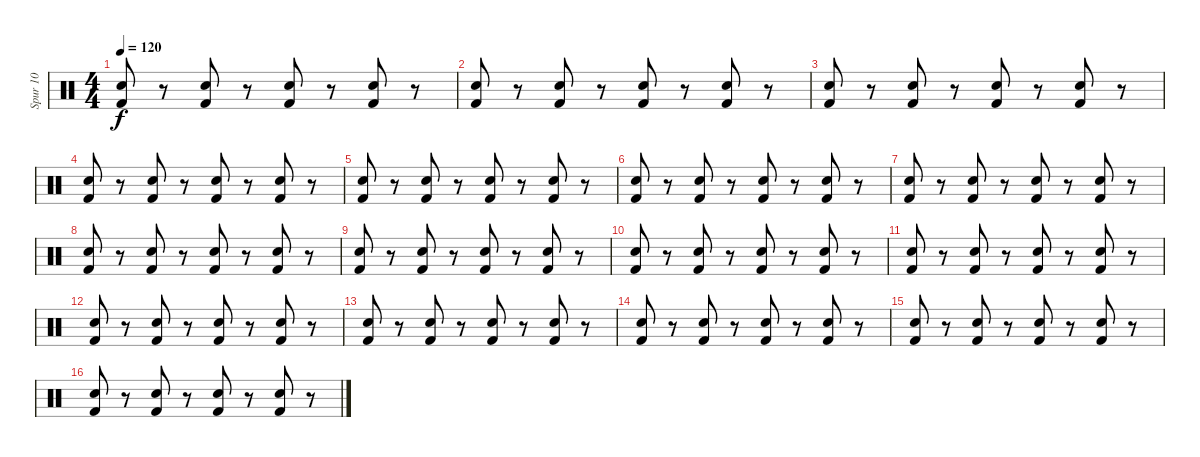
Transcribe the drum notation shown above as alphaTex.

\track ("Spur 10" "Spur 10") {instrument percussion}
\staff {score}
\articulation defaults
\ts (4 4)
\tempo 120
\clef neutral
\ks c
("Hand Clap (hit)" "Kick (hit) 2").8{dy f} r.8 ("Hand Clap (hit)" "Kick (hit) 2").8 r.8 ("Hand Clap (hit)" "Kick (hit) 2").8 r.8 ("Hand Clap (hit)" "Kick (hit) 2").8 r.8 |
("Hand Clap (hit)" "Kick (hit) 2").8 r.8 ("Hand Clap (hit)" "Kick (hit) 2").8 r.8 ("Hand Clap (hit)" "Kick (hit) 2").8 r.8 ("Hand Clap (hit)" "Kick (hit) 2").8 r.8 |
("Hand Clap (hit)" "Kick (hit) 2").8 r.8 ("Hand Clap (hit)" "Kick (hit) 2").8 r.8 ("Hand Clap (hit)" "Kick (hit) 2").8 r.8 ("Hand Clap (hit)" "Kick (hit) 2").8 r.8 |
("Hand Clap (hit)" "Kick (hit) 2").8 r.8 ("Hand Clap (hit)" "Kick (hit) 2").8 r.8 ("Hand Clap (hit)" "Kick (hit) 2").8 r.8 ("Hand Clap (hit)" "Kick (hit) 2").8 r.8 |
("Hand Clap (hit)" "Kick (hit) 2").8 r.8 ("Hand Clap (hit)" "Kick (hit) 2").8 r.8 ("Hand Clap (hit)" "Kick (hit) 2").8 r.8 ("Hand Clap (hit)" "Kick (hit) 2").8 r.8 |
("Hand Clap (hit)" "Kick (hit) 2").8 r.8 ("Hand Clap (hit)" "Kick (hit) 2").8 r.8 ("Hand Clap (hit)" "Kick (hit) 2").8 r.8 ("Hand Clap (hit)" "Kick (hit) 2").8 r.8 |
("Hand Clap (hit)" "Kick (hit) 2").8 r.8 ("Hand Clap (hit)" "Kick (hit) 2").8 r.8 ("Hand Clap (hit)" "Kick (hit) 2").8 r.8 ("Hand Clap (hit)" "Kick (hit) 2").8 r.8 |
("Hand Clap (hit)" "Kick (hit) 2").8 r.8 ("Hand Clap (hit)" "Kick (hit) 2").8 r.8 ("Hand Clap (hit)" "Kick (hit) 2").8 r.8 ("Hand Clap (hit)" "Kick (hit) 2").8 r.8 |
("Hand Clap (hit)" "Kick (hit) 2").8 r.8 ("Hand Clap (hit)" "Kick (hit) 2").8 r.8 ("Hand Clap (hit)" "Kick (hit) 2").8 r.8 ("Hand Clap (hit)" "Kick (hit) 2").8 r.8 |
("Hand Clap (hit)" "Kick (hit) 2").8 r.8 ("Hand Clap (hit)" "Kick (hit) 2").8 r.8 ("Hand Clap (hit)" "Kick (hit) 2").8 r.8 ("Hand Clap (hit)" "Kick (hit) 2").8 r.8 |
("Hand Clap (hit)" "Kick (hit) 2").8 r.8 ("Hand Clap (hit)" "Kick (hit) 2").8 r.8 ("Hand Clap (hit)" "Kick (hit) 2").8 r.8 ("Hand Clap (hit)" "Kick (hit) 2").8 r.8 |
("Hand Clap (hit)" "Kick (hit) 2").8 r.8 ("Hand Clap (hit)" "Kick (hit) 2").8 r.8 ("Hand Clap (hit)" "Kick (hit) 2").8 r.8 ("Hand Clap (hit)" "Kick (hit) 2").8 r.8 |
("Hand Clap (hit)" "Kick (hit) 2").8 r.8 ("Hand Clap (hit)" "Kick (hit) 2").8 r.8 ("Hand Clap (hit)" "Kick (hit) 2").8 r.8 ("Hand Clap (hit)" "Kick (hit) 2").8 r.8 |
("Hand Clap (hit)" "Kick (hit) 2").8 r.8 ("Hand Clap (hit)" "Kick (hit) 2").8 r.8 ("Hand Clap (hit)" "Kick (hit) 2").8 r.8 ("Hand Clap (hit)" "Kick (hit) 2").8 r.8 |
("Hand Clap (hit)" "Kick (hit) 2").8 r.8 ("Hand Clap (hit)" "Kick (hit) 2").8 r.8 ("Hand Clap (hit)" "Kick (hit) 2").8 r.8 ("Hand Clap (hit)" "Kick (hit) 2").8 r.8 |
("Hand Clap (hit)" "Kick (hit) 2").8 r.8 ("Hand Clap (hit)" "Kick (hit) 2").8 r.8 ("Hand Clap (hit)" "Kick (hit) 2").8 r.8 ("Hand Clap (hit)" "Kick (hit) 2").8 r.8
